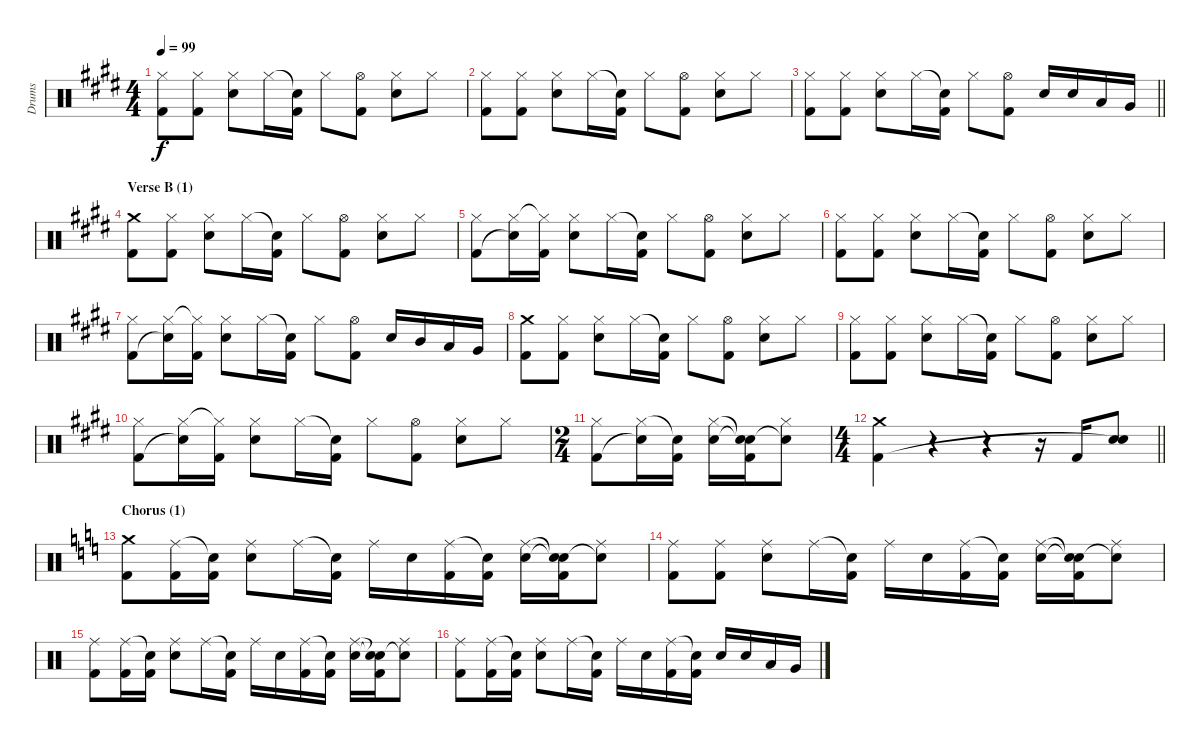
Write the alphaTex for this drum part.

\track ("Drums" "Drums") {instrument percussion}
\staff {score}
\articulation defaults
\ts (4 4)
\tempo 99
\clef neutral
\ks c#minor
("Hi-Hat (closed)" "Kick (hit) 2").8{dy f} ("Hi-Hat (closed)" "Kick (hit) 2").8 ("Hi-Hat (closed)" "Electric Snare (hit)").8 "Hi-Hat (closed)".16 ("Snare (hit)"{t} "Kick (hit) 2").16 "Hi-Hat (closed)".8 ("Hi-Hat (open)" "Kick (hit) 2").8 ("Hi-Hat (closed)" "Electric Snare (hit)").8 "Hi-Hat (closed)".8 |
("Hi-Hat (closed)" "Kick (hit) 2").8 ("Hi-Hat (closed)" "Kick (hit) 2").8 ("Hi-Hat (closed)" "Electric Snare (hit)").8 "Hi-Hat (closed)".16 ("Snare (hit)"{t} "Kick (hit) 2").16 "Hi-Hat (closed)".8 ("Hi-Hat (open)" "Kick (hit) 2").8 ("Hi-Hat (closed)" "Electric Snare (hit)").8 "Hi-Hat (closed)".8 |
\barLineRight lightlight
("Hi-Hat (closed)" "Kick (hit) 2").8 ("Hi-Hat (closed)" "Kick (hit) 2").8 ("Hi-Hat (closed)" "Electric Snare (hit)").8 "Hi-Hat (closed)".16 ("Snare (hit)"{t} "Kick (hit) 2").16 "Hi-Hat (closed)".8 ("Hi-Hat (open)" "Kick (hit) 2").8 "Electric Snare (hit)".16 "Electric Snare (hit)".16 "Low Tom (hit)".16 "Very Low Tom (hit)".16 |
\section ("" "Verse B (1)")
("Crash medium (hit)" "Kick (hit) 2").8 ("Hi-Hat (closed)" "Kick (hit) 2").8 ("Hi-Hat (closed)" "Electric Snare (hit)").8 "Hi-Hat (closed)".16 ("Snare (hit)"{t} "Kick (hit) 2").16 "Hi-Hat (closed)".8 ("Hi-Hat (open)" "Kick (hit) 2").8 ("Hi-Hat (closed)" "Electric Snare (hit)").8 "Hi-Hat (closed)".8 |
("Hi-Hat (closed)" "Kick (hit) 2").8 ("Hi-Hat (closed)" "Snare (hit)"{t}).16 ("Hi-Hat (closed)"{t} "Kick (hit) 2").16 ("Hi-Hat (closed)" "Electric Snare (hit)").8 "Hi-Hat (closed)".16 ("Snare (hit)"{t} "Kick (hit) 2").16 "Hi-Hat (closed)".8 ("Hi-Hat (open)" "Kick (hit) 2").8 ("Hi-Hat (closed)" "Electric Snare (hit)").8 "Hi-Hat (closed)".8 |
("Hi-Hat (closed)" "Kick (hit) 2").8 ("Hi-Hat (closed)" "Kick (hit) 2").8 ("Hi-Hat (closed)" "Electric Snare (hit)").8 "Hi-Hat (closed)".16 ("Snare (hit)"{t} "Kick (hit) 2").16 "Hi-Hat (closed)".8 ("Hi-Hat (open)" "Kick (hit) 2").8 ("Hi-Hat (closed)" "Electric Snare (hit)").8 "Hi-Hat (closed)".8 |
("Hi-Hat (closed)" "Kick (hit) 2").8 ("Hi-Hat (closed)" "Snare (hit)"{t}).16 ("Hi-Hat (closed)"{t} "Kick (hit) 2").16 ("Hi-Hat (closed)" "Electric Snare (hit)").8 "Hi-Hat (closed)".16 ("Snare (hit)"{t} "Kick (hit) 2").16 "Hi-Hat (closed)".8 ("Hi-Hat (open)" "Kick (hit) 2").8 "Electric Snare (hit)".16 "Mid Tom (hit)".16 "Low Tom (hit)".16 "Very Low Tom (hit)".16 |
("Crash medium (hit)" "Kick (hit) 2").8 ("Hi-Hat (closed)" "Kick (hit) 2").8 ("Hi-Hat (closed)" "Electric Snare (hit)").8 "Hi-Hat (closed)".16 ("Snare (hit)"{t} "Kick (hit) 2").16 "Hi-Hat (closed)".8 ("Hi-Hat (open)" "Kick (hit) 2").8 ("Hi-Hat (closed)" "Electric Snare (hit)").8 "Hi-Hat (closed)".8 |
("Hi-Hat (closed)" "Kick (hit) 2").8 ("Hi-Hat (closed)" "Kick (hit) 2").8 ("Hi-Hat (closed)" "Electric Snare (hit)").8 "Hi-Hat (closed)".16 ("Snare (hit)"{t} "Kick (hit) 2").16 "Hi-Hat (closed)".8 ("Hi-Hat (open)" "Kick (hit) 2").8 ("Hi-Hat (closed)" "Electric Snare (hit)").8 "Hi-Hat (closed)".8 |
("Hi-Hat (closed)" "Kick (hit) 2").8 ("Hi-Hat (closed)" "Snare (hit)"{t}).16 ("Hi-Hat (closed)"{t} "Kick (hit) 2").16 ("Hi-Hat (closed)" "Electric Snare (hit)").8 "Hi-Hat (closed)".16 ("Snare (hit)"{t} "Kick (hit) 2").16 "Hi-Hat (closed)".8 ("Hi-Hat (open)" "Kick (hit) 2").8 ("Hi-Hat (closed)" "Electric Snare (hit)").8 "Hi-Hat (closed)".8 |
\ts (2 4)
("Hi-Hat (closed)" "Kick (hit) 2").8 ("Hi-Hat (closed)" "Snare (hit)"{t}).16 ("Snare (hit)"{t} "Kick (hit) 2").16 ("Hi-Hat (closed)" "Electric Snare (hit)").16 ("Snare (hit)"{t} "Snare (hit)"{t} "Kick (hit) 2").16 ("Hi-Hat (closed)" "Snare (hit)"{t}).8 |
\ts (4 4)
\barLineRight lightlight
("Crash medium (hit)" "Kick (hit) 2").4 r.4 r.4 r.16 "Kick (hit) 2".16 ("Electric Snare (hit)" "Snare (hit)"{t}).8 |
\section ("" "Chorus (1)")
\ks c
("Crash medium (hit)" "Kick (hit) 2").8 ("Ride (middle)" "Kick (hit) 2").16 ("Snare (hit)"{t} "Kick (hit) 2").16 ("Ride (middle)" "Electric Snare (hit)").8 "Ride (middle)".16 ("Snare (hit)"{t} "Kick (hit) 2").16 "Ride (middle)".16 "Electric Snare (hit)".16 ("Ride (middle)" "Kick (hit) 2").16 ("Snare (hit)"{t} "Kick (hit) 2").16 ("Ride (middle)" "Electric Snare (hit)").16 ("Snare (hit)"{t} "Snare (hit)"{t} "Kick (hit) 2").16 ("Ride (middle)" "Snare (hit)"{t}).8 |
("Ride (middle)" "Kick (hit) 2").8 ("Ride (middle)" "Kick (hit) 2").8 ("Ride (middle)" "Electric Snare (hit)").8 "Ride (middle)".16 ("Snare (hit)"{t} "Kick (hit) 2").16 "Ride (middle)".16 "Electric Snare (hit)".16 ("Ride (middle)" "Kick (hit) 2").16 ("Snare (hit)"{t} "Kick (hit) 2").16 ("Ride (middle)" "Electric Snare (hit)").16 ("Snare (hit)"{t} "Snare (hit)"{t} "Kick (hit) 2").16 ("Ride (middle)" "Snare (hit)"{t}).8 |
("Ride (middle)" "Kick (hit) 2").8 ("Ride (middle)" "Kick (hit) 2").16 ("Snare (hit)"{t} "Kick (hit) 2").16 ("Ride (middle)" "Electric Snare (hit)").8 "Ride (middle)".16 ("Snare (hit)"{t} "Kick (hit) 2").16 "Ride (middle)".16 "Electric Snare (hit)".16 ("Ride (middle)" "Kick (hit) 2").16 ("Snare (hit)"{t} "Kick (hit) 2").16 ("Ride (middle)" "Electric Snare (hit)").16 ("Snare (hit)"{t} "Snare (hit)"{t} "Kick (hit) 2").16 ("Ride (middle)" "Snare (hit)"{t}).8 |
("Ride (middle)" "Kick (hit) 2").8 ("Ride (middle)" "Kick (hit) 2").16 ("Snare (hit)"{t} "Kick (hit) 2").16 ("Ride (middle)" "Electric Snare (hit)").8 "Ride (middle)".16 ("Snare (hit)"{t} "Kick (hit) 2").16 "Ride (middle)".16 "Electric Snare (hit)".16 ("Ride (middle)" "Kick (hit) 2").16 ("Snare (hit)"{t} "Kick (hit) 2").16 "Electric Snare (hit)".16 "Electric Snare (hit)".16 "Low Tom (hit)".16 "Very Low Tom (hit)".16
